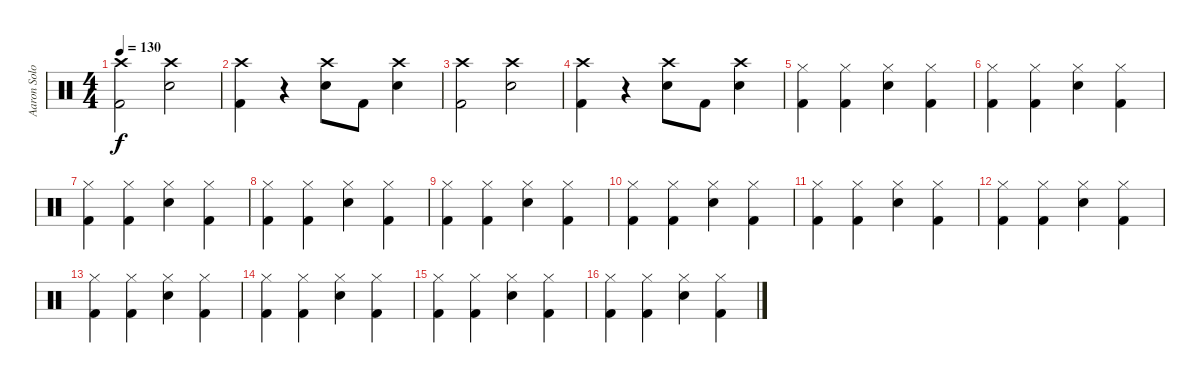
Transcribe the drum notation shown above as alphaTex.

\track ("Aaron Solowoniuk" "Aaron Solo") {instrument percussion}
\staff {score}
\articulation defaults
\ts (4 4)
\tempo 130
\clef neutral
\ks c
("Crash high (hit)" "Kick (hit) 2").2{dy f} ("Crash high (hit)" "Electric Snare (hit)").2 |
("Crash high (hit)" "Kick (hit) 2").4 r.4 ("Crash high (hit)" "Electric Snare (hit)").8 "Kick (hit) 2".8 ("Crash high (hit)" "Electric Snare (hit)").4 |
("Crash high (hit)" "Kick (hit) 2").2 ("Crash high (hit)" "Electric Snare (hit)").2 |
("Crash high (hit)" "Kick (hit) 2").4 r.4 ("Crash high (hit)" "Electric Snare (hit)").8 "Kick (hit) 2".8 ("Crash high (hit)" "Electric Snare (hit)").4 |
("Hi-Hat (closed)" "Kick (hit) 2").4 ("Hi-Hat (closed)" "Kick (hit) 2").4 ("Hi-Hat (closed)" "Electric Snare (hit)").4 ("Hi-Hat (closed)" "Kick (hit) 2").4 |
("Hi-Hat (closed)" "Kick (hit) 2").4 ("Hi-Hat (closed)" "Kick (hit) 2").4 ("Hi-Hat (closed)" "Electric Snare (hit)").4 ("Hi-Hat (closed)" "Kick (hit) 2").4 |
("Hi-Hat (closed)" "Kick (hit) 2").4 ("Hi-Hat (closed)" "Kick (hit) 2").4 ("Hi-Hat (closed)" "Electric Snare (hit)").4 ("Hi-Hat (closed)" "Kick (hit) 2").4 |
("Hi-Hat (closed)" "Kick (hit) 2").4 ("Hi-Hat (closed)" "Kick (hit) 2").4 ("Hi-Hat (closed)" "Electric Snare (hit)").4 ("Hi-Hat (closed)" "Kick (hit) 2").4 |
("Hi-Hat (closed)" "Kick (hit) 2").4 ("Hi-Hat (closed)" "Kick (hit) 2").4 ("Hi-Hat (closed)" "Electric Snare (hit)").4 ("Hi-Hat (closed)" "Kick (hit) 2").4 |
("Hi-Hat (closed)" "Kick (hit) 2").4 ("Hi-Hat (closed)" "Kick (hit) 2").4 ("Hi-Hat (closed)" "Electric Snare (hit)").4 ("Hi-Hat (closed)" "Kick (hit) 2").4 |
("Hi-Hat (closed)" "Kick (hit) 2").4 ("Hi-Hat (closed)" "Kick (hit) 2").4 ("Hi-Hat (closed)" "Electric Snare (hit)").4 ("Hi-Hat (closed)" "Kick (hit) 2").4 |
("Hi-Hat (closed)" "Kick (hit) 2").4 ("Hi-Hat (closed)" "Kick (hit) 2").4 ("Hi-Hat (closed)" "Electric Snare (hit)").4 ("Hi-Hat (closed)" "Kick (hit) 2").4 |
("Hi-Hat (closed)" "Kick (hit) 2").4 ("Hi-Hat (closed)" "Kick (hit) 2").4 ("Hi-Hat (closed)" "Electric Snare (hit)").4 ("Hi-Hat (closed)" "Kick (hit) 2").4 |
("Hi-Hat (closed)" "Kick (hit) 2").4 ("Hi-Hat (closed)" "Kick (hit) 2").4 ("Hi-Hat (closed)" "Electric Snare (hit)").4 ("Hi-Hat (closed)" "Kick (hit) 2").4 |
("Hi-Hat (closed)" "Kick (hit) 2").4 ("Hi-Hat (closed)" "Kick (hit) 2").4 ("Hi-Hat (closed)" "Electric Snare (hit)").4 ("Hi-Hat (closed)" "Kick (hit) 2").4 |
("Hi-Hat (closed)" "Kick (hit) 2").4 ("Hi-Hat (closed)" "Kick (hit) 2").4 ("Hi-Hat (closed)" "Electric Snare (hit)").4 ("Hi-Hat (closed)" "Kick (hit) 2").4
